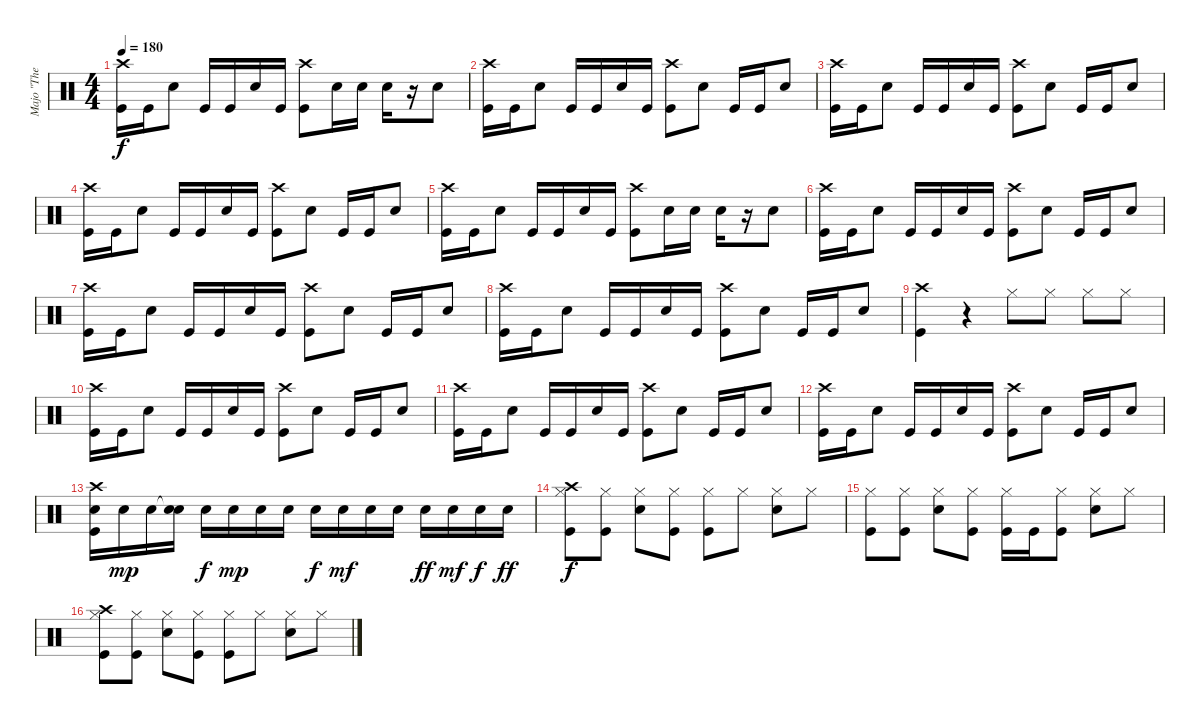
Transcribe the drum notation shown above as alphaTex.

\track ("Majo \"The Dremmel\" Hirt" "Majo \"The ") {instrument percussion}
\staff {score}
\articulation defaults
\ts (4 4)
\tempo 180
\clef neutral
\ks c
("Crash high (hit)" "Kick (hit)").16{dy f} "Kick (hit)".16 "Electric Snare (hit)".8 "Kick (hit)".16 "Kick (hit)".16 "Electric Snare (hit)".16 "Kick (hit)".16 ("Crash high (hit)" "Kick (hit)").8 "Electric Snare (hit)".16 "Electric Snare (hit)".16 "Electric Snare (hit)".16 r.16 "Electric Snare (hit)".8 |
("Crash high (hit)" "Kick (hit)").16 "Kick (hit)".16 "Electric Snare (hit)".8 "Kick (hit)".16 "Kick (hit)".16 "Electric Snare (hit)".16 "Kick (hit)".16 ("Crash high (hit)" "Kick (hit)").8 "Electric Snare (hit)".8 "Kick (hit)".16 "Kick (hit)".16 "Electric Snare (hit)".8 |
("Crash high (hit)" "Kick (hit)").16 "Kick (hit)".16 "Electric Snare (hit)".8 "Kick (hit)".16 "Kick (hit)".16 "Electric Snare (hit)".16 "Kick (hit)".16 ("Crash high (hit)" "Kick (hit)").8 "Electric Snare (hit)".8 "Kick (hit)".16 "Kick (hit)".16 "Electric Snare (hit)".8 |
("Crash high (hit)" "Kick (hit)").16 "Kick (hit)".16 "Electric Snare (hit)".8 "Kick (hit)".16 "Kick (hit)".16 "Electric Snare (hit)".16 "Kick (hit)".16 ("Crash high (hit)" "Kick (hit)").8 "Electric Snare (hit)".8 "Kick (hit)".16 "Kick (hit)".16 "Electric Snare (hit)".8 |
("Crash high (hit)" "Kick (hit)").16 "Kick (hit)".16 "Electric Snare (hit)".8 "Kick (hit)".16 "Kick (hit)".16 "Electric Snare (hit)".16 "Kick (hit)".16 ("Crash high (hit)" "Kick (hit)").8 "Electric Snare (hit)".16 "Electric Snare (hit)".16 "Electric Snare (hit)".16 r.16 "Electric Snare (hit)".8 |
("Crash high (hit)" "Kick (hit)").16 "Kick (hit)".16 "Electric Snare (hit)".8 "Kick (hit)".16 "Kick (hit)".16 "Electric Snare (hit)".16 "Kick (hit)".16 ("Crash high (hit)" "Kick (hit)").8 "Electric Snare (hit)".8 "Kick (hit)".16 "Kick (hit)".16 "Electric Snare (hit)".8 |
("Crash high (hit)" "Kick (hit)").16 "Kick (hit)".16 "Electric Snare (hit)".8 "Kick (hit)".16 "Kick (hit)".16 "Electric Snare (hit)".16 "Kick (hit)".16 ("Crash high (hit)" "Kick (hit)").8 "Electric Snare (hit)".8 "Kick (hit)".16 "Kick (hit)".16 "Electric Snare (hit)".8 |
("Crash high (hit)" "Kick (hit)").16 "Kick (hit)".16 "Electric Snare (hit)".8 "Kick (hit)".16 "Kick (hit)".16 "Electric Snare (hit)".16 "Kick (hit)".16 ("Crash high (hit)" "Kick (hit)").8 "Electric Snare (hit)".8 "Kick (hit)".16 "Kick (hit)".16 "Electric Snare (hit)".8 |
("Crash high (hit)" "Kick (hit)").4 r.4 "Hi-Hat (closed)".8 "Hi-Hat (closed)".8 "Hi-Hat (closed)".8 "Hi-Hat (closed)".8 |
("Crash high (hit)" "Kick (hit)").16 "Kick (hit)".16 "Electric Snare (hit)".8 "Kick (hit)".16 "Kick (hit)".16 "Electric Snare (hit)".16 "Kick (hit)".16 ("Crash high (hit)" "Kick (hit)").8 "Electric Snare (hit)".8 "Kick (hit)".16 "Kick (hit)".16 "Electric Snare (hit)".8 |
("Crash high (hit)" "Kick (hit)").16 "Kick (hit)".16 "Electric Snare (hit)".8 "Kick (hit)".16 "Kick (hit)".16 "Electric Snare (hit)".16 "Kick (hit)".16 ("Crash high (hit)" "Kick (hit)").8 "Electric Snare (hit)".8 "Kick (hit)".16 "Kick (hit)".16 "Electric Snare (hit)".8 |
("Crash high (hit)" "Kick (hit)").16 "Kick (hit)".16 "Electric Snare (hit)".8 "Kick (hit)".16 "Kick (hit)".16 "Electric Snare (hit)".16 "Kick (hit)".16 ("Crash high (hit)" "Kick (hit)").8 "Electric Snare (hit)".8 "Kick (hit)".16 "Kick (hit)".16 "Electric Snare (hit)".8 |
("Kick (hit)" "Crash high (hit)" "Electric Snare (hit)").16 "Electric Snare (hit)".16{dy mp} "Electric Snare (hit)".16 ("Snare (hit)"{t} "Electric Snare (hit)").16 "Electric Snare (hit)".16{dy f} "Electric Snare (hit)".16{dy mp} "Electric Snare (hit)".16 "Electric Snare (hit)".16 "Electric Snare (hit)".16{dy f} "Electric Snare (hit)".16{dy mf} "Electric Snare (hit)".16 "Electric Snare (hit)".16 "Electric Snare (hit)".16{dy ff} "Electric Snare (hit)".16{dy mf} "Electric Snare (hit)".16{dy f} "Electric Snare (hit)".16{dy ff} |
("Crash high (hit)" "Hi-Hat (closed)" "Kick (hit)").8{dy f} ("Hi-Hat (closed)" "Kick (hit)").8 ("Hi-Hat (closed)" "Electric Snare (hit)").8 ("Hi-Hat (closed)" "Kick (hit)").8 ("Hi-Hat (closed)" "Kick (hit)").8 "Hi-Hat (closed)".8 ("Hi-Hat (closed)" "Electric Snare (hit)").8 "Hi-Hat (closed)".8 |
("Hi-Hat (closed)" "Kick (hit)").8 ("Hi-Hat (closed)" "Kick (hit)").8 ("Hi-Hat (closed)" "Electric Snare (hit)").8 ("Hi-Hat (closed)" "Kick (hit)").8 ("Hi-Hat (closed)" "Kick (hit)").16 "Kick (hit)".16 ("Hi-Hat (closed)" "Kick (hit)").8 ("Hi-Hat (closed)" "Electric Snare (hit)").8 "Hi-Hat (closed)".8 |
("Crash high (hit)" "Hi-Hat (closed)" "Kick (hit)").8 ("Hi-Hat (closed)" "Kick (hit)").8 ("Hi-Hat (closed)" "Electric Snare (hit)").8 ("Hi-Hat (closed)" "Kick (hit)").8 ("Hi-Hat (closed)" "Kick (hit)").8 "Hi-Hat (closed)".8 ("Hi-Hat (closed)" "Electric Snare (hit)").8 "Hi-Hat (closed)".8
